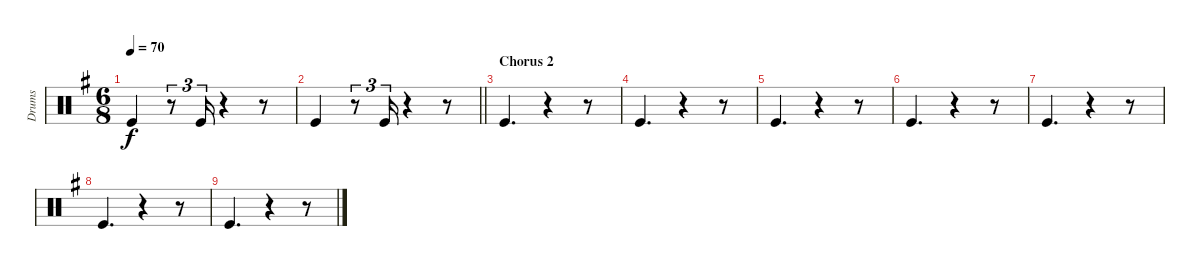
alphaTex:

\track ("Drums" "Drums") {instrument percussion}
\staff {score}
\articulation defaults
\ts (6 8)
\tempo 70
\clef neutral
\ks g "Kick (hit)".4{dy f}
r.8{tu (3 2)} "Kick (hit)".16{tu (3 2)} r.4 r.8 |
\barLineRight lightlight "Kick (hit)".4
r.8{tu (3 2)} "Kick (hit)".16{tu (3 2)} r.4 r.8 |
\section ("" "Chorus 2")
"Kick (hit)".4{d} r.4 r.8 |
"Kick (hit)".4{d} r.4 r.8 |
"Kick (hit)".4{d} r.4 r.8 |
"Kick (hit)".4{d} r.4 r.8 |
"Kick (hit)".4{d} r.4 r.8 |
"Kick (hit)".4{d} r.4 r.8 |
"Kick (hit)".4{d} r.4 r.8
